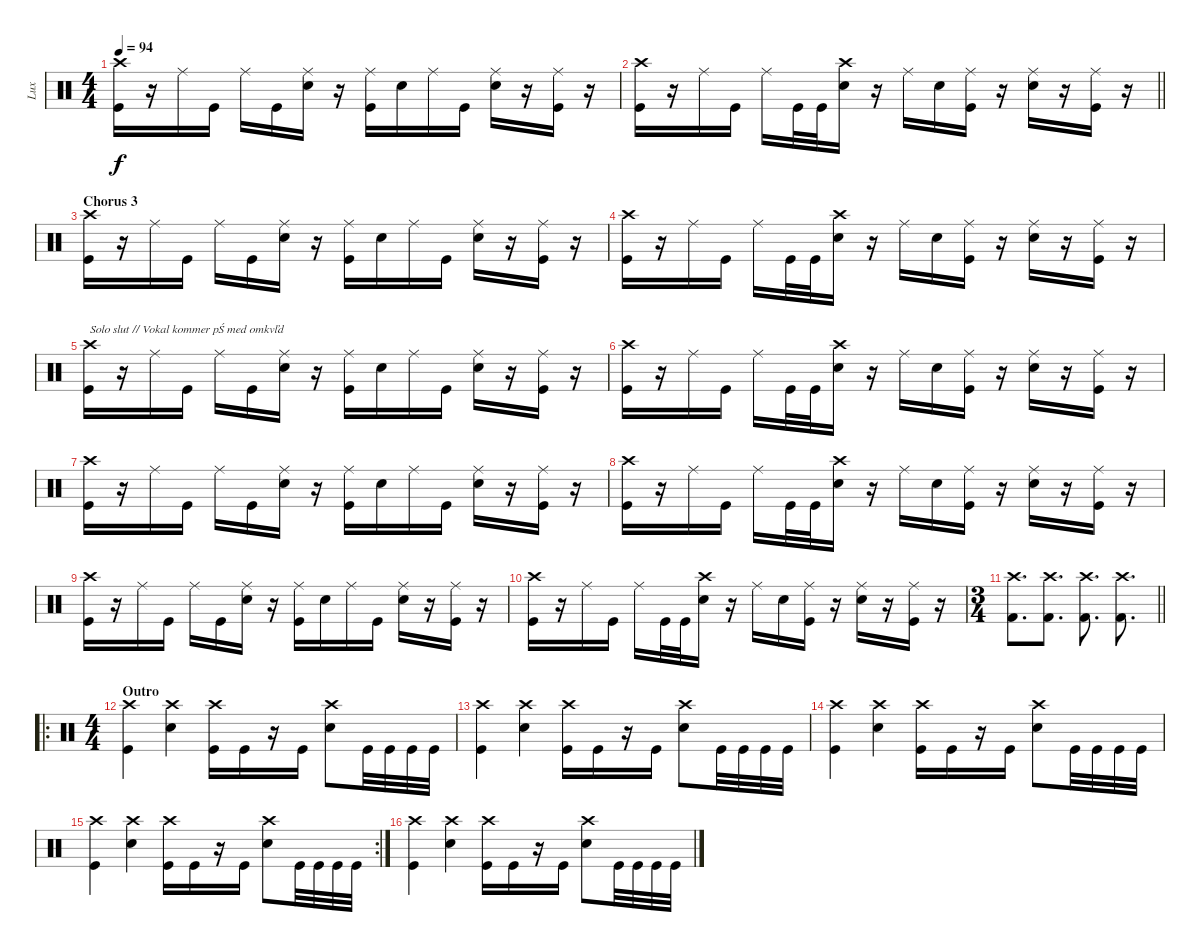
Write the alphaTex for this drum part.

\track ("Lux" "Lux") {instrument percussion}
\staff {score}
\articulation defaults
\ts (4 4)
\tempo 94
\clef neutral
\ks c
("Crash high (hit)" "Kick (hit)").16{dy f} r.16 "Ride (middle)".16 "Kick (hit)".16 "Ride (middle)".16 "Kick (hit)".16 ("Ride (middle)" "Snare (hit) 2").16 r.16 ("Ride (middle)" "Kick (hit)").16 "Snare (hit) 2".16 "Ride (middle)".16 "Kick (hit)".16 ("Ride (middle)" "Snare (hit) 2").16 r.16 ("Ride (middle)" "Kick (hit)").16 r.16 |
\barLineRight lightlight
("Crash high (hit)" "Kick (hit)").16 r.16 "Ride (middle)".16 "Kick (hit)".16 "Ride (middle)".16 "Kick (hit)".32 "Kick (hit)".32 ("Crash high (hit)" "Snare (hit) 2").16 r.16 "Ride (middle)".16 "Snare (hit) 2".16 ("Ride (middle)" "Kick (hit)").16 r.16 ("Ride (middle)" "Snare (hit) 2").16 r.16 ("Ride (middle)" "Kick (hit)").16 r.16 |
\section ("" "Chorus 3")
("Crash high (hit)" "Kick (hit)").16 r.16 "Ride (middle)".16 "Kick (hit)".16 "Ride (middle)".16 "Kick (hit)".16 ("Ride (middle)" "Snare (hit) 2").16 r.16 ("Ride (middle)" "Kick (hit)").16 "Snare (hit) 2".16 "Ride (middle)".16 "Kick (hit)".16 ("Ride (middle)" "Snare (hit) 2").16 r.16 ("Ride (middle)" "Kick (hit)").16 r.16 |
("Crash high (hit)" "Kick (hit)").16 r.16 "Ride (middle)".16 "Kick (hit)".16 "Ride (middle)".16 "Kick (hit)".32 "Kick (hit)".32 ("Crash high (hit)" "Snare (hit) 2").16 r.16 "Ride (middle)".16 "Snare (hit) 2".16 ("Ride (middle)" "Kick (hit)").16 r.16 ("Ride (middle)" "Snare (hit) 2").16 r.16 ("Ride (middle)" "Kick (hit)").16 r.16 |
("Crash high (hit)" "Kick (hit)").16{txt "Solo slut // Vokal kommer pŚ med omkvľd"} r.16 "Ride (middle)".16 "Kick (hit)".16 "Ride (middle)".16 "Kick (hit)".16 ("Ride (middle)" "Snare (hit) 2").16 r.16 ("Ride (middle)" "Kick (hit)").16 "Snare (hit) 2".16 "Ride (middle)".16 "Kick (hit)".16 ("Ride (middle)" "Snare (hit) 2").16 r.16 ("Ride (middle)" "Kick (hit)").16 r.16 |
("Crash high (hit)" "Kick (hit)").16 r.16 "Ride (middle)".16 "Kick (hit)".16 "Ride (middle)".16 "Kick (hit)".32 "Kick (hit)".32 ("Crash high (hit)" "Snare (hit) 2").16 r.16 "Ride (middle)".16 "Snare (hit) 2".16 ("Ride (middle)" "Kick (hit)").16 r.16 ("Ride (middle)" "Snare (hit) 2").16 r.16 ("Ride (middle)" "Kick (hit)").16 r.16 |
("Crash high (hit)" "Kick (hit)").16 r.16 "Ride (middle)".16 "Kick (hit)".16 "Ride (middle)".16 "Kick (hit)".16 ("Ride (middle)" "Snare (hit) 2").16 r.16 ("Ride (middle)" "Kick (hit)").16 "Snare (hit) 2".16 "Ride (middle)".16 "Kick (hit)".16 ("Ride (middle)" "Snare (hit) 2").16 r.16 ("Ride (middle)" "Kick (hit)").16 r.16 |
("Crash high (hit)" "Kick (hit)").16 r.16 "Ride (middle)".16 "Kick (hit)".16 "Ride (middle)".16 "Kick (hit)".32 "Kick (hit)".32 ("Crash high (hit)" "Snare (hit) 2").16 r.16 "Ride (middle)".16 "Snare (hit) 2".16 ("Ride (middle)" "Kick (hit)").16 r.16 ("Ride (middle)" "Snare (hit) 2").16 r.16 ("Ride (middle)" "Kick (hit)").16 r.16 |
("Crash high (hit)" "Kick (hit)").16 r.16 "Ride (middle)".16 "Kick (hit)".16 "Ride (middle)".16 "Kick (hit)".16 ("Ride (middle)" "Snare (hit) 2").16 r.16 ("Ride (middle)" "Kick (hit)").16 "Snare (hit) 2".16 "Ride (middle)".16 "Kick (hit)".16 ("Ride (middle)" "Snare (hit) 2").16 r.16 ("Ride (middle)" "Kick (hit)").16 r.16 |
("Crash high (hit)" "Kick (hit)").16 r.16 "Ride (middle)".16 "Kick (hit)".16 "Ride (middle)".16 "Kick (hit)".32 "Kick (hit)".32 ("Crash high (hit)" "Snare (hit) 2").16 r.16 "Ride (middle)".16 "Snare (hit) 2".16 ("Ride (middle)" "Kick (hit)").16 r.16 ("Ride (middle)" "Snare (hit) 2").16 r.16 ("Ride (middle)" "Kick (hit)").16 r.16 |
\ts (3 4)
\barLineRight lightlight
("Crash high (hit)" "Kick (hit) 2").8{d} ("Crash high (hit)" "Kick (hit) 2").8{d} ("Crash high (hit)" "Kick (hit) 2").8{d} ("Crash high (hit)" "Kick (hit) 2").8{d} |
\ro
\ts (4 4)
\section ("" "Outro")
("Crash high (hit)" "Kick (hit)").4 ("Crash high (hit)" "Snare (hit) 2").4 ("Crash high (hit)" "Kick (hit)").16 "Kick (hit)".16 r.16 "Kick (hit)".16 ("Crash high (hit)" "Snare (hit) 2").8 "Kick (hit)".32 "Kick (hit)".32 "Kick (hit)".32 "Kick (hit)".32 |
("Crash high (hit)" "Kick (hit)").4 ("Crash high (hit)" "Snare (hit) 2").4 ("Crash high (hit)" "Kick (hit)").16 "Kick (hit)".16 r.16 "Kick (hit)".16 ("Crash high (hit)" "Snare (hit) 2").8 "Kick (hit)".32 "Kick (hit)".32 "Kick (hit)".32 "Kick (hit)".32 |
("Crash high (hit)" "Kick (hit)").4 ("Crash high (hit)" "Snare (hit) 2").4 ("Crash high (hit)" "Kick (hit)").16 "Kick (hit)".16 r.16 "Kick (hit)".16 ("Crash high (hit)" "Snare (hit) 2").8 "Kick (hit)".32 "Kick (hit)".32 "Kick (hit)".32 "Kick (hit)".32 |
\rc 2
("Crash high (hit)" "Kick (hit)").4 ("Crash high (hit)" "Snare (hit) 2").4 ("Crash high (hit)" "Kick (hit)").16 "Kick (hit)".16 r.16 "Kick (hit)".16 ("Crash high (hit)" "Snare (hit) 2").8 "Kick (hit)".32 "Kick (hit)".32 "Kick (hit)".32 "Kick (hit)".32 |
("Crash high (hit)" "Kick (hit)").4 ("Crash high (hit)" "Snare (hit) 2").4 ("Crash high (hit)" "Kick (hit)").16 "Kick (hit)".16 r.16 "Kick (hit)".16 ("Crash high (hit)" "Snare (hit) 2").8 "Kick (hit)".32 "Kick (hit)".32 "Kick (hit)".32 "Kick (hit)".32
